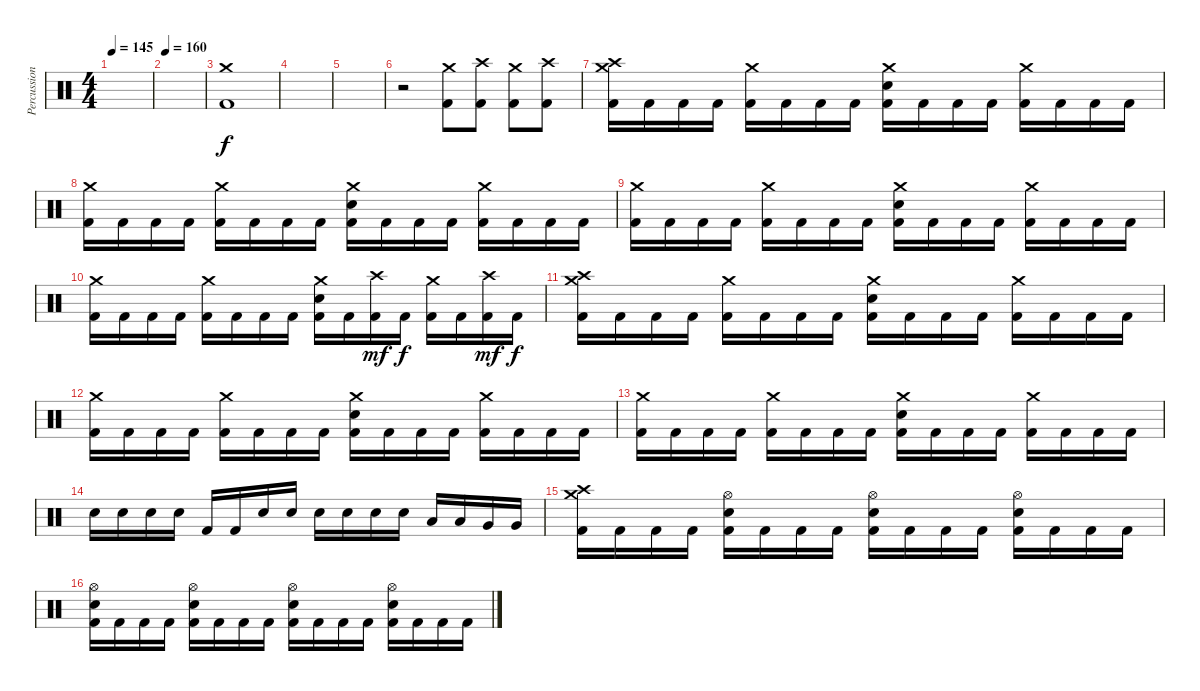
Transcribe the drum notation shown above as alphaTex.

\track ("Percussion" "Percussion") {instrument percussion}
\staff {score}
\articulation defaults
\ts (4 4)
\tempo 145
\clef neutral
\ks c
|
\tempo 160
|
("Crash medium (hit)" "Kick (hit) 2").1 |
|
|
r.2 ("Crash medium (hit)" "Kick (hit) 2").8 ("Crash high (hit)" "Kick (hit) 2").8 ("Crash medium (hit)" "Kick (hit) 2").8 ("Crash high (hit)" "Kick (hit) 2").8 |
("Crash medium (hit)" "Crash high (hit)" "Kick (hit) 2").16 "Kick (hit) 2".16 "Kick (hit) 2".16 "Kick (hit) 2".16 ("Crash medium (hit)" "Kick (hit) 2").16 "Kick (hit) 2".16 "Kick (hit) 2".16 "Kick (hit) 2".16 ("Crash medium (hit)" "Electric Snare (hit)" "Kick (hit) 2").16 "Kick (hit) 2".16 "Kick (hit) 2".16 "Kick (hit) 2".16 ("Crash medium (hit)" "Kick (hit) 2").16 "Kick (hit) 2".16 "Kick (hit) 2".16 "Kick (hit) 2".16 |
("Crash medium (hit)" "Kick (hit) 2").16 "Kick (hit) 2".16 "Kick (hit) 2".16 "Kick (hit) 2".16 ("Crash medium (hit)" "Kick (hit) 2").16 "Kick (hit) 2".16 "Kick (hit) 2".16 "Kick (hit) 2".16 ("Crash medium (hit)" "Electric Snare (hit)" "Kick (hit) 2").16 "Kick (hit) 2".16 "Kick (hit) 2".16 "Kick (hit) 2".16 ("Crash medium (hit)" "Kick (hit) 2").16 "Kick (hit) 2".16 "Kick (hit) 2".16 "Kick (hit) 2".16 |
("Crash medium (hit)" "Kick (hit) 2").16 "Kick (hit) 2".16 "Kick (hit) 2".16 "Kick (hit) 2".16 ("Crash medium (hit)" "Kick (hit) 2").16 "Kick (hit) 2".16 "Kick (hit) 2".16 "Kick (hit) 2".16 ("Crash medium (hit)" "Electric Snare (hit)" "Kick (hit) 2").16 "Kick (hit) 2".16 "Kick (hit) 2".16 "Kick (hit) 2".16 ("Crash medium (hit)" "Kick (hit) 2").16 "Kick (hit) 2".16 "Kick (hit) 2".16 "Kick (hit) 2".16 |
("Crash medium (hit)" "Kick (hit) 2").16 "Kick (hit) 2".16 "Kick (hit) 2".16 "Kick (hit) 2".16 ("Crash medium (hit)" "Kick (hit) 2").16 "Kick (hit) 2".16 "Kick (hit) 2".16 "Kick (hit) 2".16 ("Crash medium (hit)" "Electric Snare (hit)" "Kick (hit) 2").16 "Kick (hit) 2".16 ("Crash high (hit)" "Kick (hit) 2").16{dy mf} "Kick (hit) 2".16{dy f} ("Crash medium (hit)" "Kick (hit) 2").16 "Kick (hit) 2".16 ("Crash high (hit)" "Kick (hit) 2").16{dy mf} "Kick (hit) 2".16{dy f} |
("Crash medium (hit)" "Crash high (hit)" "Kick (hit) 2").16 "Kick (hit) 2".16 "Kick (hit) 2".16 "Kick (hit) 2".16 ("Crash medium (hit)" "Kick (hit) 2").16 "Kick (hit) 2".16 "Kick (hit) 2".16 "Kick (hit) 2".16 ("Crash medium (hit)" "Electric Snare (hit)" "Kick (hit) 2").16 "Kick (hit) 2".16 "Kick (hit) 2".16 "Kick (hit) 2".16 ("Crash medium (hit)" "Kick (hit) 2").16 "Kick (hit) 2".16 "Kick (hit) 2".16 "Kick (hit) 2".16 |
("Crash medium (hit)" "Kick (hit) 2").16 "Kick (hit) 2".16 "Kick (hit) 2".16 "Kick (hit) 2".16 ("Crash medium (hit)" "Kick (hit) 2").16 "Kick (hit) 2".16 "Kick (hit) 2".16 "Kick (hit) 2".16 ("Crash medium (hit)" "Electric Snare (hit)" "Kick (hit) 2").16 "Kick (hit) 2".16 "Kick (hit) 2".16 "Kick (hit) 2".16 ("Crash medium (hit)" "Kick (hit) 2").16 "Kick (hit) 2".16 "Kick (hit) 2".16 "Kick (hit) 2".16 |
("Crash medium (hit)" "Kick (hit) 2").16 "Kick (hit) 2".16 "Kick (hit) 2".16 "Kick (hit) 2".16 ("Crash medium (hit)" "Kick (hit) 2").16 "Kick (hit) 2".16 "Kick (hit) 2".16 "Kick (hit) 2".16 ("Crash medium (hit)" "Electric Snare (hit)" "Kick (hit) 2").16 "Kick (hit) 2".16 "Kick (hit) 2".16 "Kick (hit) 2".16 ("Crash medium (hit)" "Kick (hit) 2").16 "Kick (hit) 2".16 "Kick (hit) 2".16 "Kick (hit) 2".16 |
"Electric Snare (hit)".16 "Electric Snare (hit)".16 "Electric Snare (hit)".16 "Electric Snare (hit)".16 "Kick (hit) 2".16 "Kick (hit) 2".16 "Electric Snare (hit)".16 "Electric Snare (hit)".16 "Electric Snare (hit)".16 "Electric Snare (hit)".16 "Electric Snare (hit)".16 "Electric Snare (hit)".16 "Low Tom (hit)".16 "Low Tom (hit)".16 "Very Low Tom (hit)".16 "Very Low Tom (hit)".16 |
("Crash medium (hit)" "Crash high (hit)" "Kick (hit) 2").16 "Kick (hit) 2".16 "Kick (hit) 2".16 "Kick (hit) 2".16 ("Hi-Hat (open)" "Electric Snare (hit)" "Kick (hit) 2").16 "Kick (hit) 2".16 "Kick (hit) 2".16 "Kick (hit) 2".16 ("Hi-Hat (open)" "Electric Snare (hit)" "Kick (hit) 2").16 "Kick (hit) 2".16 "Kick (hit) 2".16 "Kick (hit) 2".16 ("Hi-Hat (open)" "Electric Snare (hit)" "Kick (hit) 2").16 "Kick (hit) 2".16 "Kick (hit) 2".16 "Kick (hit) 2".16 |
("Hi-Hat (open)" "Electric Snare (hit)" "Kick (hit) 2").16 "Kick (hit) 2".16 "Kick (hit) 2".16 "Kick (hit) 2".16 ("Hi-Hat (open)" "Electric Snare (hit)" "Kick (hit) 2").16 "Kick (hit) 2".16 "Kick (hit) 2".16 "Kick (hit) 2".16 ("Hi-Hat (open)" "Electric Snare (hit)" "Kick (hit) 2").16 "Kick (hit) 2".16 "Kick (hit) 2".16 "Kick (hit) 2".16 ("Hi-Hat (open)" "Electric Snare (hit)" "Kick (hit) 2").16 "Kick (hit) 2".16 "Kick (hit) 2".16 "Kick (hit) 2".16
